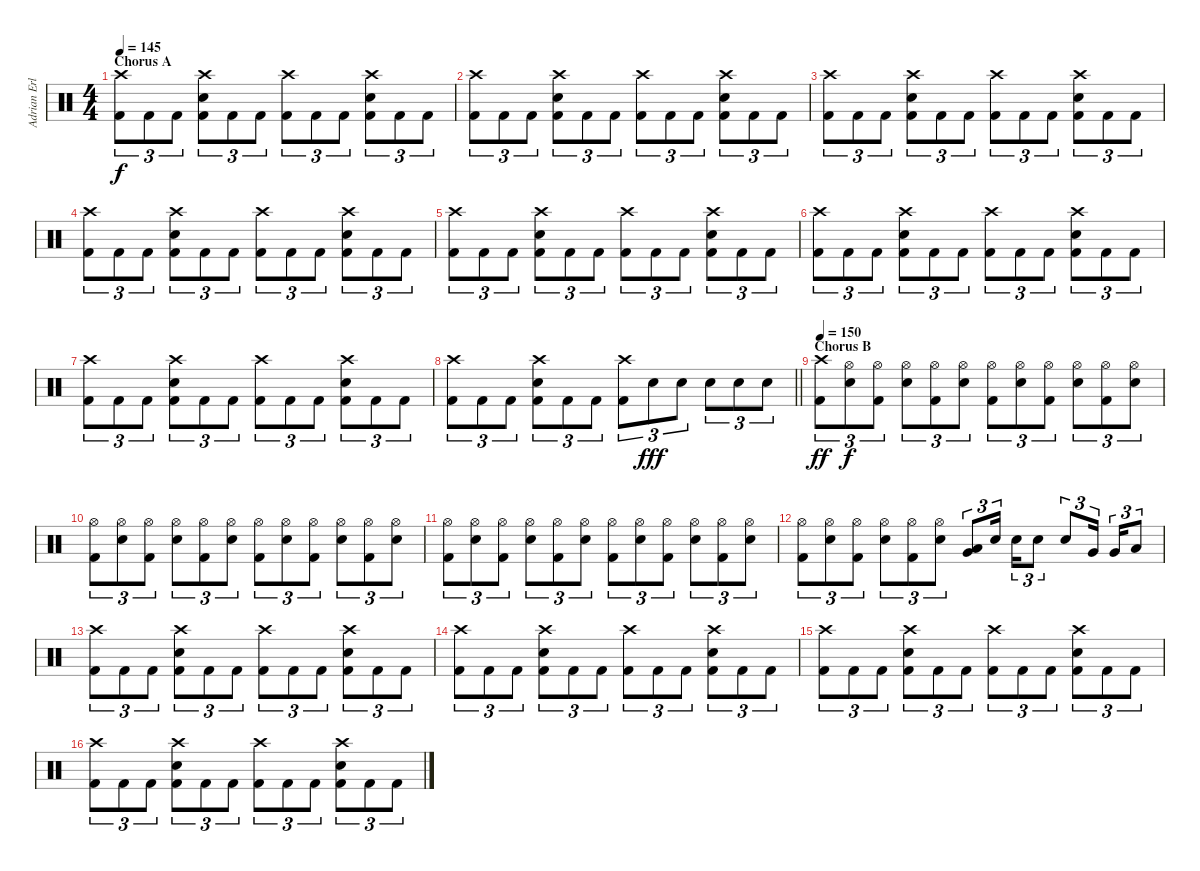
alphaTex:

\track ("Adrian Erlandsson" "Adrian Erl") {instrument percussion}
\staff {score}
\articulation defaults
\ts (4 4)
\section ("" "Chorus A")
\tempo 145
\clef neutral
\ks c
("Crash high (hit)" "Kick (hit) 2").8{tu (3 2) dy f} "Kick (hit) 2".8{tu (3 2)} "Kick (hit) 2".8{tu (3 2)} ("Crash high (hit)" "Snare (hit) 2" "Kick (hit) 2").8{tu (3 2)} "Kick (hit) 2".8{tu (3 2)} "Kick (hit) 2".8{tu (3 2)} ("Crash high (hit)" "Kick (hit) 2").8{tu (3 2)} "Kick (hit) 2".8{tu (3 2)} "Kick (hit) 2".8{tu (3 2)} ("Crash high (hit)" "Snare (hit) 2" "Kick (hit) 2").8{tu (3 2)} "Kick (hit) 2".8{tu (3 2)} "Kick (hit) 2".8{tu (3 2)} |
("Crash high (hit)" "Kick (hit) 2").8{tu (3 2)} "Kick (hit) 2".8{tu (3 2)} "Kick (hit) 2".8{tu (3 2)} ("Crash high (hit)" "Snare (hit) 2" "Kick (hit) 2").8{tu (3 2)} "Kick (hit) 2".8{tu (3 2)} "Kick (hit) 2".8{tu (3 2)} ("Crash high (hit)" "Kick (hit) 2").8{tu (3 2)} "Kick (hit) 2".8{tu (3 2)} "Kick (hit) 2".8{tu (3 2)} ("Crash high (hit)" "Snare (hit) 2" "Kick (hit) 2").8{tu (3 2)} "Kick (hit) 2".8{tu (3 2)} "Kick (hit) 2".8{tu (3 2)} |
("Crash high (hit)" "Kick (hit) 2").8{tu (3 2)} "Kick (hit) 2".8{tu (3 2)} "Kick (hit) 2".8{tu (3 2)} ("Crash high (hit)" "Snare (hit) 2" "Kick (hit) 2").8{tu (3 2)} "Kick (hit) 2".8{tu (3 2)} "Kick (hit) 2".8{tu (3 2)} ("Crash high (hit)" "Kick (hit) 2").8{tu (3 2)} "Kick (hit) 2".8{tu (3 2)} "Kick (hit) 2".8{tu (3 2)} ("Crash high (hit)" "Snare (hit) 2" "Kick (hit) 2").8{tu (3 2)} "Kick (hit) 2".8{tu (3 2)} "Kick (hit) 2".8{tu (3 2)} |
("Crash high (hit)" "Kick (hit) 2").8{tu (3 2)} "Kick (hit) 2".8{tu (3 2)} "Kick (hit) 2".8{tu (3 2)} ("Crash high (hit)" "Snare (hit) 2" "Kick (hit) 2").8{tu (3 2)} "Kick (hit) 2".8{tu (3 2)} "Kick (hit) 2".8{tu (3 2)} ("Crash high (hit)" "Kick (hit) 2").8{tu (3 2)} "Kick (hit) 2".8{tu (3 2)} "Kick (hit) 2".8{tu (3 2)} ("Crash high (hit)" "Snare (hit) 2" "Kick (hit) 2").8{tu (3 2)} "Kick (hit) 2".8{tu (3 2)} "Kick (hit) 2".8{tu (3 2)} |
("Crash high (hit)" "Kick (hit) 2").8{tu (3 2)} "Kick (hit) 2".8{tu (3 2)} "Kick (hit) 2".8{tu (3 2)} ("Crash high (hit)" "Snare (hit) 2" "Kick (hit) 2").8{tu (3 2)} "Kick (hit) 2".8{tu (3 2)} "Kick (hit) 2".8{tu (3 2)} ("Crash high (hit)" "Kick (hit) 2").8{tu (3 2)} "Kick (hit) 2".8{tu (3 2)} "Kick (hit) 2".8{tu (3 2)} ("Crash high (hit)" "Snare (hit) 2" "Kick (hit) 2").8{tu (3 2)} "Kick (hit) 2".8{tu (3 2)} "Kick (hit) 2".8{tu (3 2)} |
("Crash high (hit)" "Kick (hit) 2").8{tu (3 2)} "Kick (hit) 2".8{tu (3 2)} "Kick (hit) 2".8{tu (3 2)} ("Crash high (hit)" "Snare (hit) 2" "Kick (hit) 2").8{tu (3 2)} "Kick (hit) 2".8{tu (3 2)} "Kick (hit) 2".8{tu (3 2)} ("Crash high (hit)" "Kick (hit) 2").8{tu (3 2)} "Kick (hit) 2".8{tu (3 2)} "Kick (hit) 2".8{tu (3 2)} ("Crash high (hit)" "Snare (hit) 2" "Kick (hit) 2").8{tu (3 2)} "Kick (hit) 2".8{tu (3 2)} "Kick (hit) 2".8{tu (3 2)} |
("Crash high (hit)" "Kick (hit) 2").8{tu (3 2)} "Kick (hit) 2".8{tu (3 2)} "Kick (hit) 2".8{tu (3 2)} ("Crash high (hit)" "Snare (hit) 2" "Kick (hit) 2").8{tu (3 2)} "Kick (hit) 2".8{tu (3 2)} "Kick (hit) 2".8{tu (3 2)} ("Crash high (hit)" "Kick (hit) 2").8{tu (3 2)} "Kick (hit) 2".8{tu (3 2)} "Kick (hit) 2".8{tu (3 2)} ("Crash high (hit)" "Snare (hit) 2" "Kick (hit) 2").8{tu (3 2)} "Kick (hit) 2".8{tu (3 2)} "Kick (hit) 2".8{tu (3 2)} |
\barLineRight lightlight
("Crash high (hit)" "Kick (hit) 2").8{tu (3 2)} "Kick (hit) 2".8{tu (3 2)} "Kick (hit) 2".8{tu (3 2)} ("Crash high (hit)" "Snare (hit) 2" "Kick (hit) 2").8{tu (3 2)} "Kick (hit) 2".8{tu (3 2)} "Kick (hit) 2".8{tu (3 2)} ("Crash high (hit)" "Kick (hit) 2").8{tu (3 2)} "Snare (hit) 2".8{tu (3 2) dy fff} "Snare (hit) 2".8{tu (3 2)} "Snare (hit) 2".8{tu (3 2)} "Snare (hit) 2".8{tu (3 2)} "Snare (hit) 2".8{tu (3 2)} |
\section ("" "Chorus B")
\tempo 150
("Crash high (hit)" "Kick (hit) 2").8{tu (3 2) dy ff} ("Hi-Hat (open)" "Snare (hit) 2").8{tu (3 2) dy f} ("Hi-Hat (open)" "Kick (hit) 2").8{tu (3 2)} ("Hi-Hat (open)" "Snare (hit) 2").8{tu (3 2)} ("Hi-Hat (open)" "Kick (hit) 2").8{tu (3 2)} ("Hi-Hat (open)" "Snare (hit) 2").8{tu (3 2)} ("Hi-Hat (open)" "Kick (hit) 2").8{tu (3 2)} ("Hi-Hat (open)" "Snare (hit) 2").8{tu (3 2)} ("Hi-Hat (open)" "Kick (hit) 2").8{tu (3 2)} ("Hi-Hat (open)" "Snare (hit) 2").8{tu (3 2)} ("Hi-Hat (open)" "Kick (hit) 2").8{tu (3 2)} ("Hi-Hat (open)" "Snare (hit) 2").8{tu (3 2)} |
("Hi-Hat (open)" "Kick (hit) 2").8{tu (3 2)} ("Hi-Hat (open)" "Snare (hit) 2").8{tu (3 2)} ("Hi-Hat (open)" "Kick (hit) 2").8{tu (3 2)} ("Hi-Hat (open)" "Snare (hit) 2").8{tu (3 2)} ("Hi-Hat (open)" "Kick (hit) 2").8{tu (3 2)} ("Hi-Hat (open)" "Snare (hit) 2").8{tu (3 2)} ("Hi-Hat (open)" "Kick (hit) 2").8{tu (3 2)} ("Hi-Hat (open)" "Snare (hit) 2").8{tu (3 2)} ("Hi-Hat (open)" "Kick (hit) 2").8{tu (3 2)} ("Hi-Hat (open)" "Snare (hit) 2").8{tu (3 2)} ("Hi-Hat (open)" "Kick (hit) 2").8{tu (3 2)} ("Hi-Hat (open)" "Snare (hit) 2").8{tu (3 2)} |
("Hi-Hat (open)" "Kick (hit) 2").8{tu (3 2)} ("Hi-Hat (open)" "Snare (hit) 2").8{tu (3 2)} ("Hi-Hat (open)" "Kick (hit) 2").8{tu (3 2)} ("Hi-Hat (open)" "Snare (hit) 2").8{tu (3 2)} ("Hi-Hat (open)" "Kick (hit) 2").8{tu (3 2)} ("Hi-Hat (open)" "Snare (hit) 2").8{tu (3 2)} ("Hi-Hat (open)" "Kick (hit) 2").8{tu (3 2)} ("Hi-Hat (open)" "Snare (hit) 2").8{tu (3 2)} ("Hi-Hat (open)" "Kick (hit) 2").8{tu (3 2)} ("Hi-Hat (open)" "Snare (hit) 2").8{tu (3 2)} ("Hi-Hat (open)" "Kick (hit) 2").8{tu (3 2)} ("Hi-Hat (open)" "Snare (hit) 2").8{tu (3 2)} |
("Hi-Hat (open)" "Kick (hit) 2").8{tu (3 2)} ("Hi-Hat (open)" "Snare (hit) 2").8{tu (3 2)} ("Hi-Hat (open)" "Kick (hit) 2").8{tu (3 2)} ("Hi-Hat (open)" "Snare (hit) 2").8{tu (3 2)} ("Hi-Hat (open)" "Kick (hit) 2").8{tu (3 2)} ("Hi-Hat (open)" "Snare (hit) 2").8{tu (3 2)} ("Very Low Tom (hit)" "Low Floor Tom (hit)").8{tu (3 2)} "Snare (hit) 2".16{tu (3 2) beam splitsecondary} "Snare (hit) 2".16{tu (3 2)} "Snare (hit) 2".8{tu (3 2)} "Snare (hit) 2".8{tu (3 2)} "Very Low Tom (hit)".16{tu (3 2) beam splitsecondary} "Very Low Tom (hit)".16{tu (3 2)} "Low Floor Tom (hit)".8{tu (3 2)} |
("Crash high (hit)" "Kick (hit) 2").8{tu (3 2)} "Kick (hit) 2".8{tu (3 2)} "Kick (hit) 2".8{tu (3 2)} ("Crash high (hit)" "Snare (hit) 2" "Kick (hit) 2").8{tu (3 2)} "Kick (hit) 2".8{tu (3 2)} "Kick (hit) 2".8{tu (3 2)} ("Crash high (hit)" "Kick (hit) 2").8{tu (3 2)} "Kick (hit) 2".8{tu (3 2)} "Kick (hit) 2".8{tu (3 2)} ("Crash high (hit)" "Snare (hit) 2" "Kick (hit) 2").8{tu (3 2)} "Kick (hit) 2".8{tu (3 2)} "Kick (hit) 2".8{tu (3 2)} |
("Crash high (hit)" "Kick (hit) 2").8{tu (3 2)} "Kick (hit) 2".8{tu (3 2)} "Kick (hit) 2".8{tu (3 2)} ("Crash high (hit)" "Snare (hit) 2" "Kick (hit) 2").8{tu (3 2)} "Kick (hit) 2".8{tu (3 2)} "Kick (hit) 2".8{tu (3 2)} ("Crash high (hit)" "Kick (hit) 2").8{tu (3 2)} "Kick (hit) 2".8{tu (3 2)} "Kick (hit) 2".8{tu (3 2)} ("Crash high (hit)" "Snare (hit) 2" "Kick (hit) 2").8{tu (3 2)} "Kick (hit) 2".8{tu (3 2)} "Kick (hit) 2".8{tu (3 2)} |
("Crash high (hit)" "Kick (hit) 2").8{tu (3 2)} "Kick (hit) 2".8{tu (3 2)} "Kick (hit) 2".8{tu (3 2)} ("Crash high (hit)" "Snare (hit) 2" "Kick (hit) 2").8{tu (3 2)} "Kick (hit) 2".8{tu (3 2)} "Kick (hit) 2".8{tu (3 2)} ("Crash high (hit)" "Kick (hit) 2").8{tu (3 2)} "Kick (hit) 2".8{tu (3 2)} "Kick (hit) 2".8{tu (3 2)} ("Crash high (hit)" "Snare (hit) 2" "Kick (hit) 2").8{tu (3 2)} "Kick (hit) 2".8{tu (3 2)} "Kick (hit) 2".8{tu (3 2)} |
("Crash high (hit)" "Kick (hit) 2").8{tu (3 2)} "Kick (hit) 2".8{tu (3 2)} "Kick (hit) 2".8{tu (3 2)} ("Crash high (hit)" "Snare (hit) 2" "Kick (hit) 2").8{tu (3 2)} "Kick (hit) 2".8{tu (3 2)} "Kick (hit) 2".8{tu (3 2)} ("Crash high (hit)" "Kick (hit) 2").8{tu (3 2)} "Kick (hit) 2".8{tu (3 2)} "Kick (hit) 2".8{tu (3 2)} ("Crash high (hit)" "Snare (hit) 2" "Kick (hit) 2").8{tu (3 2)} "Kick (hit) 2".8{tu (3 2)} "Kick (hit) 2".8{tu (3 2)}
